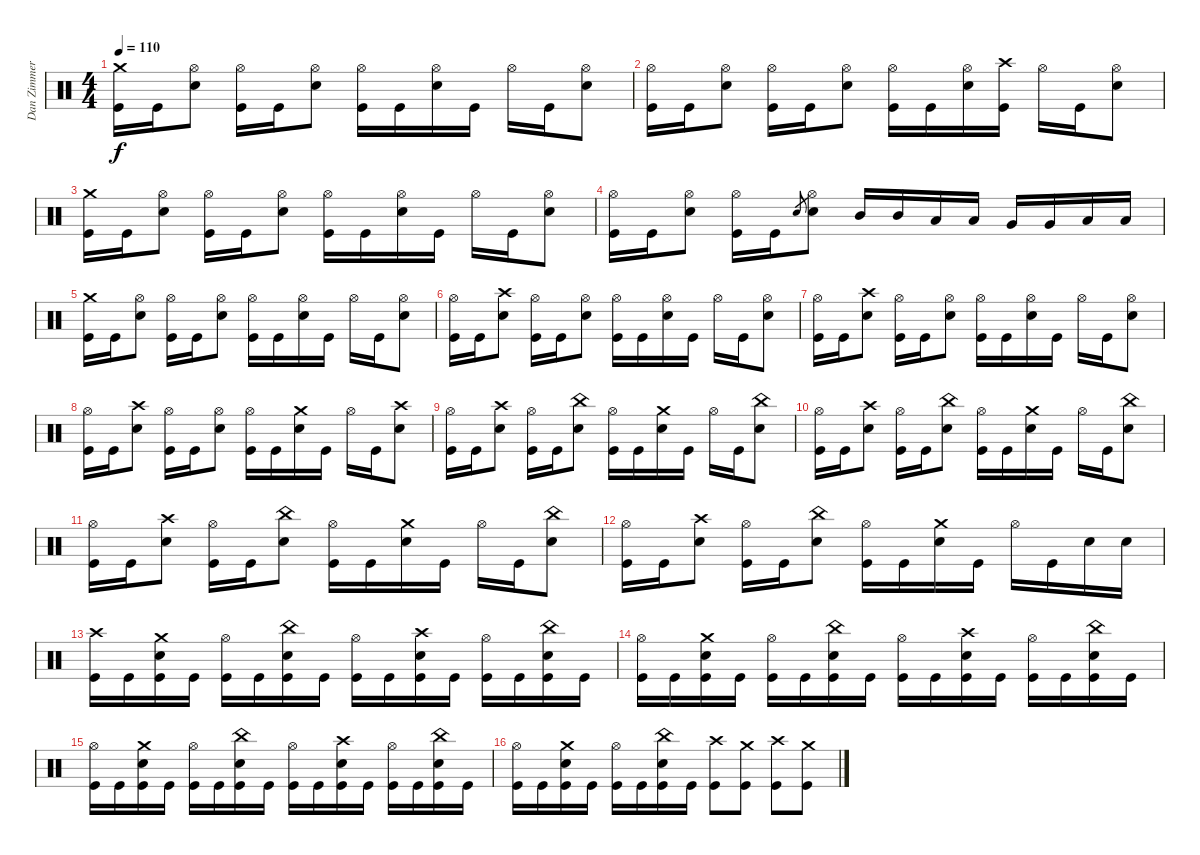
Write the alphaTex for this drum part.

\track ("Dan Zimmerman" "Dan Zimmer") {instrument percussion}
\staff {score}
\articulation defaults
\ts (4 4)
\tempo 110
\clef neutral
\ks c
("Crash medium (hit)" "Kick (hit)").16{dy f} "Kick (hit)".16 ("Hi-Hat (open)" "Snare (hit) 2").8 ("Hi-Hat (open)" "Kick (hit)").16 "Kick (hit)".16 ("Hi-Hat (open)" "Snare (hit) 2").8 ("Hi-Hat (open)" "Kick (hit)").16 "Kick (hit)".16 ("Hi-Hat (open)" "Snare (hit) 2").16 "Kick (hit)".16 "Hi-Hat (open)".16 "Kick (hit)".16 ("Hi-Hat (open)" "Snare (hit) 2").8 |
("Hi-Hat (open)" "Kick (hit)").16 "Kick (hit)".16 ("Hi-Hat (open)" "Snare (hit) 2").8 ("Hi-Hat (open)" "Kick (hit)").16 "Kick (hit)".16 ("Hi-Hat (open)" "Snare (hit) 2").8 ("Hi-Hat (open)" "Kick (hit)").16 "Kick (hit)".16 ("Hi-Hat (open)" "Snare (hit) 2").16 ("Crash high (hit)" "Kick (hit)").16 "Hi-Hat (open)".16 "Kick (hit)".16 ("Hi-Hat (open)" "Snare (hit) 2").8 |
("Crash medium (hit)" "Kick (hit)").16 "Kick (hit)".16 ("Hi-Hat (open)" "Snare (hit) 2").8 ("Hi-Hat (open)" "Kick (hit)").16 "Kick (hit)".16 ("Hi-Hat (open)" "Snare (hit) 2").8 ("Hi-Hat (open)" "Kick (hit)").16 "Kick (hit)".16 ("Hi-Hat (open)" "Snare (hit) 2").16 "Kick (hit)".16 "Hi-Hat (open)".16 "Kick (hit)".16 ("Hi-Hat (open)" "Snare (hit) 2").8 |
("Hi-Hat (open)" "Kick (hit)").16 "Kick (hit)".16 ("Hi-Hat (open)" "Snare (hit) 2").8 ("Hi-Hat (open)" "Kick (hit)").16 "Kick (hit)".16 "Snare (hit) 2".8{gr} ("Hi-Hat (open)" "Snare (hit) 2").8 "Mid Tom (hit)".16 "Mid Tom (hit)".16 "Low Tom (hit)".16 "Low Tom (hit)".16 "Very Low Tom (hit)".16 "Very Low Tom (hit)".16 "Low Floor Tom (hit)".16 "Low Floor Tom (hit)".16 |
("Crash medium (hit)" "Kick (hit)").16 "Kick (hit)".16 ("Hi-Hat (open)" "Snare (hit) 2").8 ("Hi-Hat (open)" "Kick (hit)").16 "Kick (hit)".16 ("Hi-Hat (open)" "Snare (hit) 2").8 ("Hi-Hat (open)" "Kick (hit)").16 "Kick (hit)".16 ("Hi-Hat (open)" "Snare (hit) 2").16 "Kick (hit)".16 "Hi-Hat (open)".16 "Kick (hit)".16 ("Hi-Hat (open)" "Snare (hit) 2").8 |
("Hi-Hat (open)" "Kick (hit)").16 "Kick (hit)".16 ("Crash high (hit)" "Snare (hit) 2").8 ("Hi-Hat (open)" "Kick (hit)").16 "Kick (hit)".16 ("Hi-Hat (open)" "Snare (hit) 2").8 ("Hi-Hat (open)" "Kick (hit)").16 "Kick (hit)".16 ("Hi-Hat (open)" "Snare (hit) 2").16 "Kick (hit)".16 "Hi-Hat (open)".16 "Kick (hit)".16 ("Hi-Hat (open)" "Snare (hit) 2").8 |
("Hi-Hat (open)" "Kick (hit)").16 "Kick (hit)".16 ("Crash high (hit)" "Snare (hit) 2").8 ("Hi-Hat (open)" "Kick (hit)").16 "Kick (hit)".16 ("Hi-Hat (open)" "Snare (hit) 2").8 ("Hi-Hat (open)" "Kick (hit)").16 "Kick (hit)".16 ("Hi-Hat (open)" "Snare (hit) 2").16 "Kick (hit)".16 "Hi-Hat (open)".16 "Kick (hit)".16 ("Hi-Hat (open)" "Snare (hit) 2").8 |
("Hi-Hat (open)" "Kick (hit)").16 "Kick (hit)".16 ("Crash high (hit)" "Snare (hit) 2").8 ("Hi-Hat (open)" "Kick (hit)").16 "Kick (hit)".16 ("Hi-Hat (open)" "Snare (hit) 2").8 ("Hi-Hat (open)" "Kick (hit)").16 "Kick (hit)".16 ("Crash medium (hit)" "Snare (hit) 2").16 "Kick (hit)".16 "Hi-Hat (open)".16 "Kick (hit)".16 ("Crash high (hit)" "Snare (hit) 2").8 |
("Hi-Hat (open)" "Kick (hit)").16 "Kick (hit)".16 ("Crash high (hit)" "Snare (hit) 2").8 ("Hi-Hat (open)" "Kick (hit)").16 "Kick (hit)".16 ("China (hit)" "Snare (hit) 2").8 ("Hi-Hat (open)" "Kick (hit)").16 "Kick (hit)".16 ("Crash medium (hit)" "Snare (hit) 2").16 "Kick (hit)".16 "Hi-Hat (open)".16 "Kick (hit)".16 ("China (hit)" "Snare (hit) 2").8 |
("Hi-Hat (open)" "Kick (hit)").16 "Kick (hit)".16 ("Crash high (hit)" "Snare (hit) 2").8 ("Hi-Hat (open)" "Kick (hit)").16 "Kick (hit)".16 ("China (hit)" "Snare (hit) 2").8 ("Hi-Hat (open)" "Kick (hit)").16 "Kick (hit)".16 ("Crash medium (hit)" "Snare (hit) 2").16 "Kick (hit)".16 "Hi-Hat (open)".16 "Kick (hit)".16 ("China (hit)" "Snare (hit) 2").8 |
("Hi-Hat (open)" "Kick (hit)").16 "Kick (hit)".16 ("Crash high (hit)" "Snare (hit) 2").8 ("Hi-Hat (open)" "Kick (hit)").16 "Kick (hit)".16 ("China (hit)" "Snare (hit) 2").8 ("Hi-Hat (open)" "Kick (hit)").16 "Kick (hit)".16 ("Crash medium (hit)" "Snare (hit) 2").16 "Kick (hit)".16 "Hi-Hat (open)".16 "Kick (hit)".16 ("China (hit)" "Snare (hit) 2").8 |
("Hi-Hat (open)" "Kick (hit)").16 "Kick (hit)".16 ("Crash high (hit)" "Snare (hit) 2").8 ("Hi-Hat (open)" "Kick (hit)").16 "Kick (hit)".16 ("China (hit)" "Snare (hit) 2").8 ("Hi-Hat (open)" "Kick (hit)").16 "Kick (hit)".16 ("Crash medium (hit)" "Snare (hit) 2").16 "Kick (hit)".16 "Hi-Hat (open)".16 "Kick (hit)".16 "Snare (hit) 2".16 "Snare (hit) 2".16 |
("Crash high (hit)" "Kick (hit)").16 "Kick (hit)".16 ("Crash medium (hit)" "Snare (hit) 2" "Kick (hit)").16 "Kick (hit)".16 ("Hi-Hat (open)" "Kick (hit)").16 "Kick (hit)".16 ("China (hit)" "Snare (hit) 2" "Kick (hit)").16 "Kick (hit)".16 ("Hi-Hat (open)" "Kick (hit)").16 "Kick (hit)".16 ("Crash high (hit)" "Snare (hit) 2" "Kick (hit)").16 "Kick (hit)".16 ("Hi-Hat (open)" "Kick (hit)").16 "Kick (hit)".16 ("China (hit)" "Snare (hit) 2" "Kick (hit)").16 "Kick (hit)".16 |
("Hi-Hat (open)" "Kick (hit)").16 "Kick (hit)".16 ("Crash medium (hit)" "Snare (hit) 2" "Kick (hit)").16 "Kick (hit)".16 ("Hi-Hat (open)" "Kick (hit)").16 "Kick (hit)".16 ("China (hit)" "Snare (hit) 2" "Kick (hit)").16 "Kick (hit)".16 ("Hi-Hat (open)" "Kick (hit)").16 "Kick (hit)".16 ("Crash high (hit)" "Snare (hit) 2" "Kick (hit)").16 "Kick (hit)".16 ("Hi-Hat (open)" "Kick (hit)").16 "Kick (hit)".16 ("China (hit)" "Snare (hit) 2" "Kick (hit)").16 "Kick (hit)".16 |
("Hi-Hat (open)" "Kick (hit)").16 "Kick (hit)".16 ("Crash medium (hit)" "Snare (hit) 2" "Kick (hit)").16 "Kick (hit)".16 ("Hi-Hat (open)" "Kick (hit)").16 "Kick (hit)".16 ("China (hit)" "Snare (hit) 2" "Kick (hit)").16 "Kick (hit)".16 ("Hi-Hat (open)" "Kick (hit)").16 "Kick (hit)".16 ("Crash high (hit)" "Snare (hit) 2" "Kick (hit)").16 "Kick (hit)".16 ("Hi-Hat (open)" "Kick (hit)").16 "Kick (hit)".16 ("China (hit)" "Snare (hit) 2" "Kick (hit)").16 "Kick (hit)".16 |
("Hi-Hat (open)" "Kick (hit)").16 "Kick (hit)".16 ("Crash medium (hit)" "Snare (hit) 2" "Kick (hit)").16 "Kick (hit)".16 ("Hi-Hat (open)" "Kick (hit)").16 "Kick (hit)".16 ("China (hit)" "Snare (hit) 2" "Kick (hit)").16 "Kick (hit)".16 ("Crash high (hit)" "Kick (hit)").8 ("Crash medium (hit)" "Kick (hit)").8 ("Crash high (hit)" "Kick (hit)").8 ("Crash medium (hit)" "Kick (hit)").8
